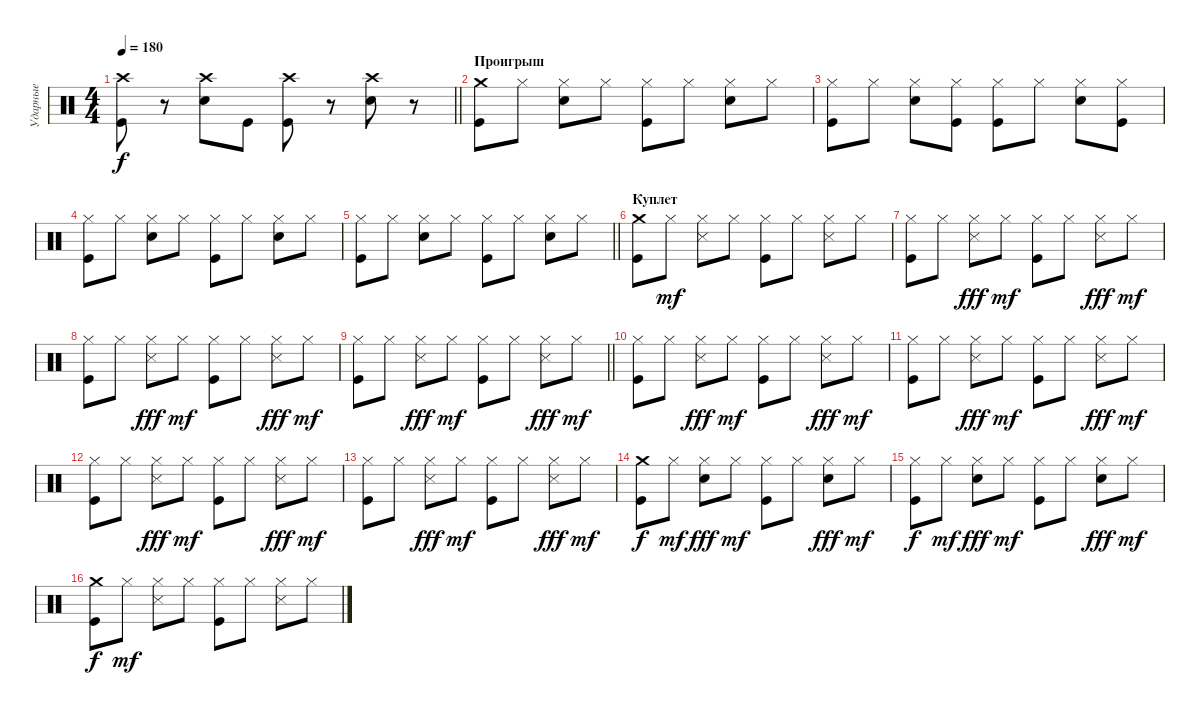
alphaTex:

\track ("Ударные" "Ударные") {instrument percussion}
\staff {score}
\articulation defaults
\ts (4 4)
\tempo 180
\clef neutral
\barLineRight lightlight
\ks c
("Crash high (hit)" "Kick (hit)").8{dy f} r.8 ("Crash high (hit)" "Electric Snare (hit)").8 "Kick (hit)".8 ("Crash high (hit)" "Kick (hit)").8 r.8 ("Crash high (hit)" "Electric Snare (hit)").8 r.8 |
\section ("" "Проигрыш")
("Crash medium (hit)" "Kick (hit)").8 "Hi-Hat (closed)".8 ("Hi-Hat (closed)" "Electric Snare (hit)").8 "Hi-Hat (closed)".8 ("Hi-Hat (closed)" "Kick (hit)").8 "Hi-Hat (closed)".8 ("Hi-Hat (closed)" "Electric Snare (hit)").8 "Hi-Hat (closed)".8 |
("Hi-Hat (closed)" "Kick (hit)").8 "Hi-Hat (closed)".8 ("Hi-Hat (closed)" "Electric Snare (hit)").8 ("Hi-Hat (closed)" "Kick (hit)").8 ("Hi-Hat (closed)" "Kick (hit)").8 "Hi-Hat (closed)".8 ("Hi-Hat (closed)" "Electric Snare (hit)").8 ("Hi-Hat (closed)" "Kick (hit)").8 |
("Hi-Hat (closed)" "Kick (hit)").8 "Hi-Hat (closed)".8 ("Hi-Hat (closed)" "Electric Snare (hit)").8 "Hi-Hat (closed)".8 ("Hi-Hat (closed)" "Kick (hit)").8 "Hi-Hat (closed)".8 ("Hi-Hat (closed)" "Electric Snare (hit)").8 "Hi-Hat (closed)".8 |
\barLineRight lightlight
("Hi-Hat (closed)" "Kick (hit)").8 "Hi-Hat (closed)".8 ("Hi-Hat (closed)" "Electric Snare (hit)").8 "Hi-Hat (closed)".8 ("Hi-Hat (closed)" "Kick (hit)").8 "Hi-Hat (closed)".8 ("Hi-Hat (closed)" "Electric Snare (hit)").8 "Hi-Hat (closed)".8 |
\section ("" "Куплет")
("Crash medium (hit)" "Kick (hit)").8 "Hi-Hat (closed)".8{dy mf} ("Hi-Hat (closed)" "Metronome (hit)").8 "Hi-Hat (closed)".8 ("Hi-Hat (closed)" "Kick (hit)").8 "Hi-Hat (closed)".8 ("Hi-Hat (closed)" "Metronome (hit)").8 "Hi-Hat (closed)".8 |
("Hi-Hat (closed)" "Kick (hit)").8 "Hi-Hat (closed)".8 ("Hi-Hat (closed)" "Metronome (hit)").8{dy fff} "Hi-Hat (closed)".8{dy mf} ("Hi-Hat (closed)" "Kick (hit)").8 "Hi-Hat (closed)".8 ("Hi-Hat (closed)" "Metronome (hit)").8{dy fff} "Hi-Hat (closed)".8{dy mf} |
("Hi-Hat (closed)" "Kick (hit)").8 "Hi-Hat (closed)".8 ("Hi-Hat (closed)" "Metronome (hit)").8{dy fff} "Hi-Hat (closed)".8{dy mf} ("Hi-Hat (closed)" "Kick (hit)").8 "Hi-Hat (closed)".8 ("Hi-Hat (closed)" "Metronome (hit)").8{dy fff} "Hi-Hat (closed)".8{dy mf} |
\barLineRight lightlight
("Hi-Hat (closed)" "Kick (hit)").8 "Hi-Hat (closed)".8 ("Hi-Hat (closed)" "Metronome (hit)").8{dy fff} "Hi-Hat (closed)".8{dy mf} ("Hi-Hat (closed)" "Kick (hit)").8 "Hi-Hat (closed)".8 ("Hi-Hat (closed)" "Metronome (hit)").8{dy fff} "Hi-Hat (closed)".8{dy mf} |
("Hi-Hat (closed)" "Kick (hit)").8 "Hi-Hat (closed)".8 ("Hi-Hat (closed)" "Metronome (hit)").8{dy fff} "Hi-Hat (closed)".8{dy mf} ("Hi-Hat (closed)" "Kick (hit)").8 "Hi-Hat (closed)".8 ("Hi-Hat (closed)" "Metronome (hit)").8{dy fff} "Hi-Hat (closed)".8{dy mf} |
("Hi-Hat (closed)" "Kick (hit)").8 "Hi-Hat (closed)".8 ("Hi-Hat (closed)" "Metronome (hit)").8{dy fff} "Hi-Hat (closed)".8{dy mf} ("Hi-Hat (closed)" "Kick (hit)").8 "Hi-Hat (closed)".8 ("Hi-Hat (closed)" "Metronome (hit)").8{dy fff} "Hi-Hat (closed)".8{dy mf} |
("Hi-Hat (closed)" "Kick (hit)").8 "Hi-Hat (closed)".8 ("Hi-Hat (closed)" "Metronome (hit)").8{dy fff} "Hi-Hat (closed)".8{dy mf} ("Hi-Hat (closed)" "Kick (hit)").8 "Hi-Hat (closed)".8 ("Hi-Hat (closed)" "Metronome (hit)").8{dy fff} "Hi-Hat (closed)".8{dy mf} |
("Hi-Hat (closed)" "Kick (hit)").8 "Hi-Hat (closed)".8 ("Hi-Hat (closed)" "Metronome (hit)").8{dy fff} "Hi-Hat (closed)".8{dy mf} ("Hi-Hat (closed)" "Kick (hit)").8 "Hi-Hat (closed)".8 ("Hi-Hat (closed)" "Metronome (hit)").8{dy fff} "Hi-Hat (closed)".8{dy mf} |
("Crash medium (hit)" "Kick (hit)").8{dy f} "Hi-Hat (closed)".8{dy mf} ("Hi-Hat (closed)" "Electric Snare (hit)").8{dy fff} "Hi-Hat (closed)".8{dy mf} ("Hi-Hat (closed)" "Kick (hit)").8 "Hi-Hat (closed)".8 ("Hi-Hat (closed)" "Electric Snare (hit)").8{dy fff} "Hi-Hat (closed)".8{dy mf} |
("Hi-Hat (closed)" "Kick (hit)").8{dy f} "Hi-Hat (closed)".8{dy mf} ("Hi-Hat (closed)" "Electric Snare (hit)").8{dy fff} "Hi-Hat (closed)".8{dy mf} ("Hi-Hat (closed)" "Kick (hit)").8 "Hi-Hat (closed)".8 ("Hi-Hat (closed)" "Electric Snare (hit)").8{dy fff} "Hi-Hat (closed)".8{dy mf} |
("Crash medium (hit)" "Kick (hit)").8{dy f} "Hi-Hat (closed)".8{dy mf} ("Hi-Hat (closed)" "Metronome (hit)").8 "Hi-Hat (closed)".8 ("Hi-Hat (closed)" "Kick (hit)").8 "Hi-Hat (closed)".8 ("Hi-Hat (closed)" "Metronome (hit)").8 "Hi-Hat (closed)".8
